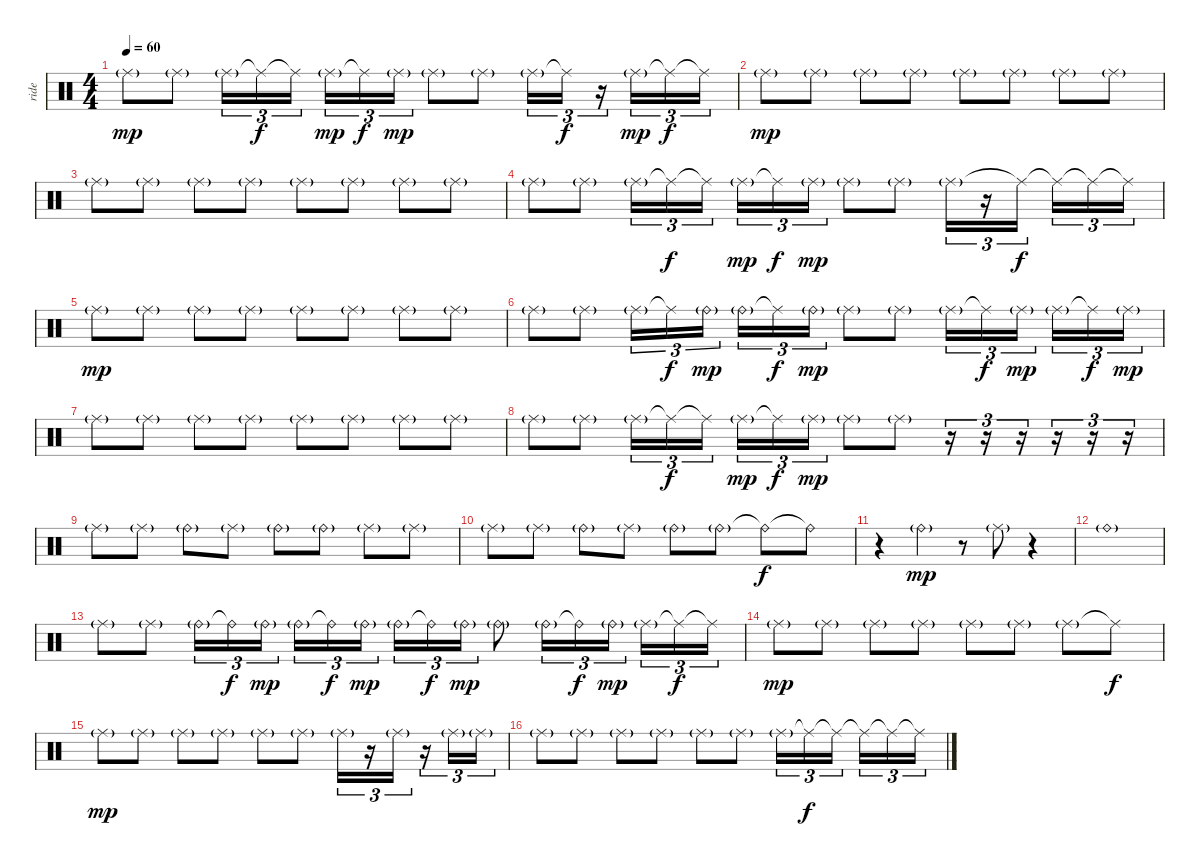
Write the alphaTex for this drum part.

\track ("ride" "ride") {instrument percussion}
\staff {score}
\articulation defaults
\ts (4 4)
\tempo 60
\clef neutral
\ks c "Ride (middle)"{g}.8{dy mp} "Ride (middle)"{g}.8 "Ride (middle)"{g}.16{tu (3 2)} "Ride (middle)"{t}.16{tu (3 2) dy f} "Ride (middle)"{t}.16{tu (3 2)} "Ride (middle)"{g}.16{tu (3 2) dy mp} "Ride (middle)"{t}.16{tu (3 2) dy f} "Ride (middle)"{g}.16{tu (3 2) dy mp} "Ride (middle)"{g}.8 "Ride (middle)"{g}.8 "Ride (middle)"{g}.16{tu (3 2)} "Ride (middle)"{t}.16{tu (3 2) dy f}
r.16{tu (3 2)} "Ride (middle)"{g}.16{tu (3 2) dy mp} "Ride (middle)"{t}.16{tu (3 2) dy f} "Ride (middle)"{t}.16{tu (3 2)} |
"Ride (middle)"{g}.8{dy mp} "Ride (middle)"{g}.8 "Ride (middle)"{g}.8 "Ride (middle)"{g}.8 "Ride (middle)"{g}.8 "Ride (middle)"{g}.8 "Ride (middle)"{g}.8 "Ride (middle)"{g}.8 |
"Ride (middle)"{g}.8 "Ride (middle)"{g}.8 "Ride (middle)"{g}.8 "Ride (middle)"{g}.8 "Ride (middle)"{g}.8 "Ride (middle)"{g}.8 "Ride (middle)"{g}.8 "Ride (middle)"{g}.8 |
"Ride (middle)"{g}.8 "Ride (middle)"{g}.8 "Ride (middle)"{g}.16{tu (3 2)} "Ride (middle)"{t}.16{tu (3 2) dy f} "Ride (middle)"{t}.16{tu (3 2)} "Ride (middle)"{g}.16{tu (3 2) dy mp} "Ride (middle)"{t}.16{tu (3 2) dy f} "Ride (middle)"{g}.16{tu (3 2) dy mp} "Ride (middle)"{g}.8 "Ride (middle)"{g}.8 "Ride (middle)"{g}.16{tu (3 2)} r.16{tu (3 2)} "Ride (middle)"{t}.16{tu (3 2) dy f} "Ride (middle)"{t}.16{tu (3 2)} "Ride (middle)"{t}.16{tu (3 2)} "Ride (middle)"{t}.16{tu (3 2)} |
"Ride (middle)"{g}.8{dy mp} "Ride (middle)"{g}.8 "Ride (middle)"{g}.8 "Ride (middle)"{g}.8 "Ride (middle)"{g}.8 "Ride (middle)"{g}.8 "Ride (middle)"{g}.8 "Ride (middle)"{g}.8 |
"Ride (middle)"{g}.8 "Ride (middle)"{g}.8 "Ride (middle)"{g}.16{tu (3 2)} "Ride (middle)"{t}.16{tu (3 2) dy f} "Ride (bell)"{g}.16{tu (3 2) dy mp} "Ride (bell)"{g}.16{tu (3 2)} "Ride (middle)"{t}.16{tu (3 2) dy f} "Ride (bell)"{g}.16{tu (3 2) dy mp} "Ride (middle)"{g}.8 "Ride (middle)"{g}.8 "Ride (middle)"{g}.16{tu (3 2)} "Ride (middle)"{t}.16{tu (3 2) dy f} "Ride (middle)"{g}.16{tu (3 2) dy mp} "Ride (middle)"{g}.16{tu (3 2)} "Ride (middle)"{t}.16{tu (3 2) dy f} "Ride (middle)"{g}.16{tu (3 2) dy mp} |
"Ride (middle)"{g}.8 "Ride (middle)"{g}.8 "Ride (middle)"{g}.8 "Ride (middle)"{g}.8 "Ride (middle)"{g}.8 "Ride (middle)"{g}.8 "Ride (middle)"{g}.8 "Ride (middle)"{g}.8 |
"Ride (middle)"{g}.8 "Ride (middle)"{g}.8 "Ride (middle)"{g}.16{tu (3 2)} "Ride (middle)"{t}.16{tu (3 2) dy f} "Ride (middle)"{t}.16{tu (3 2)} "Ride (middle)"{g}.16{tu (3 2) dy mp} "Ride (middle)"{t}.16{tu (3 2) dy f} "Ride (middle)"{g}.16{tu (3 2) dy mp} "Ride (middle)"{g}.8 "Ride (middle)"{g}.8 r.16{tu (3 2)} r.16{tu (3 2)} r.16{tu (3 2)} r.16{tu (3 2)} r.16{tu (3 2)} r.16{tu (3 2)} |
"Ride (middle)"{g}.8 "Ride (middle)"{g}.8 "Ride (bell)"{g}.8 "Ride (middle)"{g}.8 "Ride (bell)"{g}.8 "Ride (bell)"{g}.8 "Ride (middle)"{g}.8 "Ride (middle)"{g}.8 |
"Ride (middle)"{g}.8 "Ride (middle)"{g}.8 "Ride (bell)"{g}.8 "Ride (middle)"{g}.8 "Ride (bell)"{g}.8 "Ride (bell)"{g}.8 "Ride (bell)"{t}.8{dy f} "Ride (bell)"{t}.8 |
r.4 "Ride (bell)"{g}.4{dy mp} r.8 "Ride (middle)"{g}.8 r.4 |
"Ride (bell)"{g}.1 |
"Ride (middle)"{g}.8 "Ride (middle)"{g}.8 "Ride (bell)"{g}.16{tu (3 2)} "Ride (bell)"{t}.16{tu (3 2) dy f} "Ride (bell)"{g}.16{tu (3 2) dy mp} "Ride (bell)"{g}.16{tu (3 2)} "Ride (bell)"{t}.16{tu (3 2) dy f} "Ride (bell)"{g}.16{tu (3 2) dy mp} "Ride (bell)"{g}.16{tu (3 2)} "Ride (bell)"{t}.16{tu (3 2) dy f} "Ride (bell)"{g}.16{tu (3 2) dy mp} "Ride (bell)"{g}.8 "Ride (bell)"{g}.16{tu (3 2)} "Ride (bell)"{t}.16{tu (3 2) dy f} "Ride (bell)"{g}.16{tu (3 2) dy mp} "Ride (middle)"{g}.16{tu (3 2)} "Ride (middle)"{t}.16{tu (3 2) dy f} "Ride (middle)"{t}.16{tu (3 2)} |
"Ride (middle)"{g}.8{dy mp} "Ride (middle)"{g}.8 "Ride (middle)"{g}.8 "Ride (middle)"{g}.8 "Ride (middle)"{g}.8 "Ride (middle)"{g}.8 "Ride (middle)"{g}.8 "Ride (middle)"{t}.8{dy f} |
"Ride (middle)"{g}.8{dy mp} "Ride (middle)"{g}.8 "Ride (middle)"{g}.8 "Ride (middle)"{g}.8 "Ride (middle)"{g}.8 "Ride (middle)"{g}.8 "Ride (middle)"{g}.16{tu (3 2)} r.16{tu (3 2)} "Ride (middle)"{g}.16{tu (3 2)} r.16{tu (3 2)} "Ride (middle)"{g}.16{tu (3 2)} "Ride (middle)"{g}.16{tu (3 2)} |
"Ride (middle)"{g}.8 "Ride (middle)"{g}.8 "Ride (middle)"{g}.8 "Ride (middle)"{g}.8 "Ride (middle)"{g}.8 "Ride (middle)"{g}.8 "Ride (middle)"{g}.16{tu (3 2)} "Ride (middle)"{t}.16{tu (3 2) dy f} "Ride (middle)"{t}.16{tu (3 2)} "Ride (middle)"{t}.16{tu (3 2)} "Ride (middle)"{t}.16{tu (3 2)} "Ride (middle)"{t}.16{tu (3 2)}
